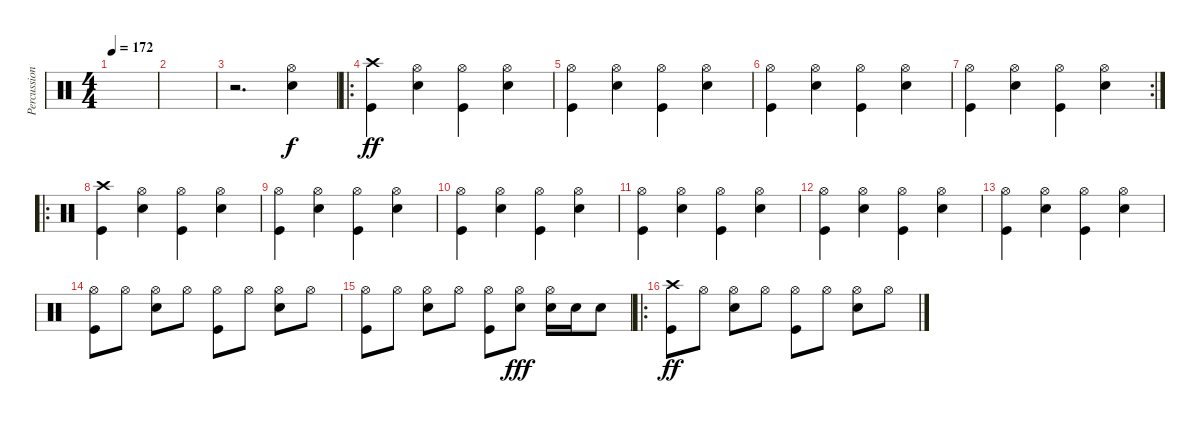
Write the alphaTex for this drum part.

\track ("Percussioni" "Percussion") {instrument percussion}
\staff {score}
\articulation defaults
\ts (4 4)
\tempo 172
\clef neutral
\ks c
|
|
r.2{d} ("Hi-Hat (open)" "Electric Snare (hit)").4 |
\ro
("Crash high (hit)" "Kick (hit)").4{dy ff} ("Hi-Hat (open)" "Electric Snare (hit)").4 ("Hi-Hat (open)" "Kick (hit)").4 ("Hi-Hat (open)" "Electric Snare (hit)").4 |
("Hi-Hat (open)" "Kick (hit)").4 ("Hi-Hat (open)" "Electric Snare (hit)").4 ("Hi-Hat (open)" "Kick (hit)").4 ("Hi-Hat (open)" "Electric Snare (hit)").4 |
("Hi-Hat (open)" "Kick (hit)").4 ("Hi-Hat (open)" "Electric Snare (hit)").4 ("Hi-Hat (open)" "Kick (hit)").4 ("Hi-Hat (open)" "Electric Snare (hit)").4 |
\rc 2
("Hi-Hat (open)" "Kick (hit)").4 ("Hi-Hat (open)" "Electric Snare (hit)").4 ("Hi-Hat (open)" "Kick (hit)").4 ("Hi-Hat (open)" "Electric Snare (hit)").4 |
\ro
("Crash high (hit)" "Kick (hit)").4 ("Hi-Hat (open)" "Electric Snare (hit)").4 ("Hi-Hat (open)" "Kick (hit)").4 ("Hi-Hat (open)" "Electric Snare (hit)").4 |
("Hi-Hat (open)" "Kick (hit)").4 ("Hi-Hat (open)" "Electric Snare (hit)").4 ("Hi-Hat (open)" "Kick (hit)").4 ("Hi-Hat (open)" "Electric Snare (hit)").4 |
("Hi-Hat (open)" "Kick (hit)").4 ("Hi-Hat (open)" "Electric Snare (hit)").4 ("Hi-Hat (open)" "Kick (hit)").4 ("Hi-Hat (open)" "Electric Snare (hit)").4 |
("Hi-Hat (open)" "Kick (hit)").4 ("Hi-Hat (open)" "Electric Snare (hit)").4 ("Hi-Hat (open)" "Kick (hit)").4 ("Hi-Hat (open)" "Electric Snare (hit)").4 |
("Hi-Hat (open)" "Kick (hit)").4 ("Hi-Hat (open)" "Electric Snare (hit)").4 ("Hi-Hat (open)" "Kick (hit)").4 ("Hi-Hat (open)" "Electric Snare (hit)").4 |
("Hi-Hat (open)" "Kick (hit)").4 ("Hi-Hat (open)" "Electric Snare (hit)").4 ("Hi-Hat (open)" "Kick (hit)").4 ("Hi-Hat (open)" "Electric Snare (hit)").4 |
("Hi-Hat (open)" "Kick (hit)").8 "Hi-Hat (open)".8 ("Hi-Hat (open)" "Electric Snare (hit)").8 "Hi-Hat (open)".8 ("Hi-Hat (open)" "Kick (hit)").8 "Hi-Hat (open)".8 ("Hi-Hat (open)" "Electric Snare (hit)").8 "Hi-Hat (open)".8 |
("Hi-Hat (open)" "Kick (hit)").8 "Hi-Hat (open)".8 ("Hi-Hat (open)" "Electric Snare (hit)").8 "Hi-Hat (open)".8 ("Hi-Hat (open)" "Kick (hit)").8 ("Hi-Hat (open)" "Electric Snare (hit)").8{dy fff} ("Hi-Hat (open)" "Electric Snare (hit)").16 "Electric Snare (hit)".16 "Electric Snare (hit)".8 |
\ro
("Crash high (hit)" "Kick (hit)").8{dy ff} "Hi-Hat (open)".8 ("Hi-Hat (open)" "Electric Snare (hit)").8 "Hi-Hat (open)".8 ("Hi-Hat (open)" "Kick (hit)").8 "Hi-Hat (open)".8 ("Hi-Hat (open)" "Electric Snare (hit)").8 "Hi-Hat (open)".8
